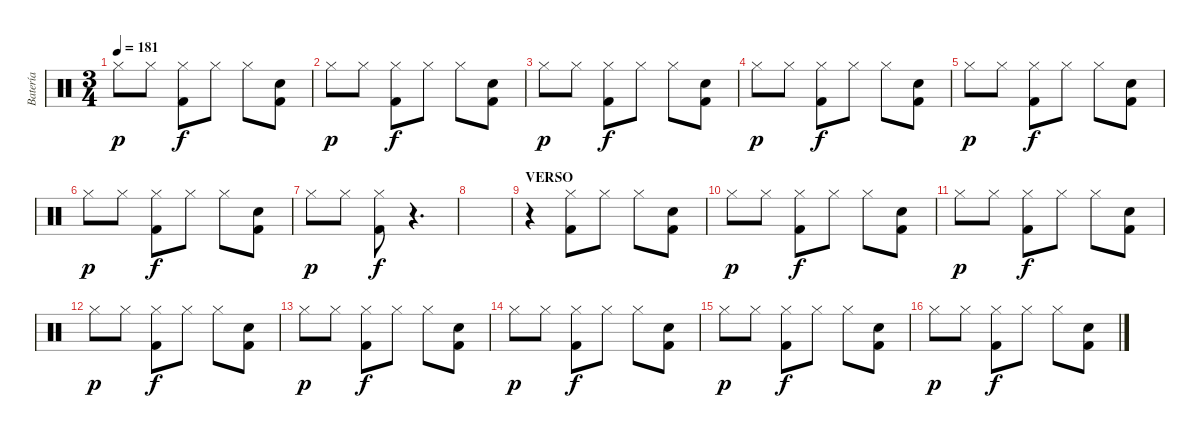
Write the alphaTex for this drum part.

\track ("Batería" "Batería") {instrument percussion}
\staff {score}
\articulation defaults
\ts (3 4)
\tempo 181
\clef neutral
\ks c "Hi-Hat (closed)".8{dy p} "Hi-Hat (closed)".8
("Hi-Hat (closed)" "Kick (hit) 2").8{dy f} "Hi-Hat (closed)".8 "Hi-Hat (closed)".8 ("Electric Snare (hit)" "Kick (hit) 2").8 |
"Hi-Hat (closed)".8{dy p} "Hi-Hat (closed)".8 ("Hi-Hat (closed)" "Kick (hit) 2").8{dy f} "Hi-Hat (closed)".8 "Hi-Hat (closed)".8 ("Electric Snare (hit)" "Kick (hit) 2").8 |
"Hi-Hat (closed)".8{dy p} "Hi-Hat (closed)".8 ("Hi-Hat (closed)" "Kick (hit) 2").8{dy f} "Hi-Hat (closed)".8 "Hi-Hat (closed)".8 ("Electric Snare (hit)" "Kick (hit) 2").8 |
"Hi-Hat (closed)".8{dy p} "Hi-Hat (closed)".8 ("Hi-Hat (closed)" "Kick (hit) 2").8{dy f} "Hi-Hat (closed)".8 "Hi-Hat (closed)".8 ("Electric Snare (hit)" "Kick (hit) 2").8 |
"Hi-Hat (closed)".8{dy p} "Hi-Hat (closed)".8 ("Hi-Hat (closed)" "Kick (hit) 2").8{dy f} "Hi-Hat (closed)".8 "Hi-Hat (closed)".8 ("Electric Snare (hit)" "Kick (hit) 2").8 |
"Hi-Hat (closed)".8{dy p} "Hi-Hat (closed)".8 ("Hi-Hat (closed)" "Kick (hit) 2").8{dy f} "Hi-Hat (closed)".8 "Hi-Hat (closed)".8 ("Electric Snare (hit)" "Kick (hit) 2").8 |
"Hi-Hat (closed)".8{dy p} "Hi-Hat (closed)".8 ("Hi-Hat (closed)" "Kick (hit) 2").8{dy f} r.4{d} |
|
\section ("" "VERSO")
r.4 ("Hi-Hat (closed)" "Kick (hit) 2").8 "Hi-Hat (closed)".8 "Hi-Hat (closed)".8 ("Electric Snare (hit)" "Kick (hit) 2").8 |
"Hi-Hat (closed)".8{dy p} "Hi-Hat (closed)".8 ("Hi-Hat (closed)" "Kick (hit) 2").8{dy f} "Hi-Hat (closed)".8 "Hi-Hat (closed)".8 ("Electric Snare (hit)" "Kick (hit) 2").8 |
"Hi-Hat (closed)".8{dy p} "Hi-Hat (closed)".8 ("Hi-Hat (closed)" "Kick (hit) 2").8{dy f} "Hi-Hat (closed)".8 "Hi-Hat (closed)".8 ("Electric Snare (hit)" "Kick (hit) 2").8 |
"Hi-Hat (closed)".8{dy p} "Hi-Hat (closed)".8 ("Hi-Hat (closed)" "Kick (hit) 2").8{dy f} "Hi-Hat (closed)".8 "Hi-Hat (closed)".8 ("Electric Snare (hit)" "Kick (hit) 2").8 |
"Hi-Hat (closed)".8{dy p} "Hi-Hat (closed)".8 ("Hi-Hat (closed)" "Kick (hit) 2").8{dy f} "Hi-Hat (closed)".8 "Hi-Hat (closed)".8 ("Electric Snare (hit)" "Kick (hit) 2").8 |
"Hi-Hat (closed)".8{dy p} "Hi-Hat (closed)".8 ("Hi-Hat (closed)" "Kick (hit) 2").8{dy f} "Hi-Hat (closed)".8 "Hi-Hat (closed)".8 ("Electric Snare (hit)" "Kick (hit) 2").8 |
"Hi-Hat (closed)".8{dy p} "Hi-Hat (closed)".8 ("Hi-Hat (closed)" "Kick (hit) 2").8{dy f} "Hi-Hat (closed)".8 "Hi-Hat (closed)".8 ("Electric Snare (hit)" "Kick (hit) 2").8 |
"Hi-Hat (closed)".8{dy p} "Hi-Hat (closed)".8 ("Hi-Hat (closed)" "Kick (hit) 2").8{dy f} "Hi-Hat (closed)".8 "Hi-Hat (closed)".8 ("Electric Snare (hit)" "Kick (hit) 2").8
